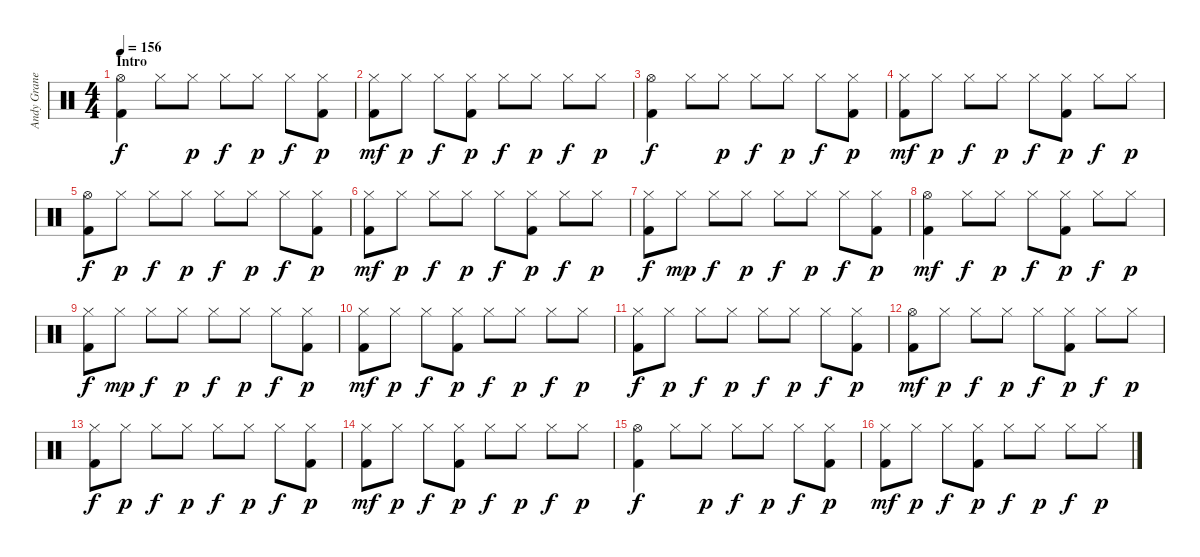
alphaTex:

\track ("Andy Granelli" "Andy Grane") {instrument percussion}
\staff {score}
\articulation defaults
\ts (4 4)
\section ("" "Intro")
\tempo 156
\clef neutral
\ks c
("Hi-Hat (open)" "Kick (hit) 2").4{dy f} "Hi-Hat (closed)".8 "Hi-Hat (closed)".8{dy p} "Hi-Hat (closed)".8{dy f} "Hi-Hat (closed)".8{dy p} "Hi-Hat (closed)".8{dy f} ("Hi-Hat (closed)" "Kick (hit) 2").8{dy p} |
("Hi-Hat (closed)" "Kick (hit) 2").8{dy mf} "Hi-Hat (closed)".8{dy p} "Hi-Hat (closed)".8{dy f} ("Hi-Hat (closed)" "Kick (hit) 2").8{dy p} "Hi-Hat (closed)".8{dy f} "Hi-Hat (closed)".8{dy p} "Hi-Hat (closed)".8{dy f} "Hi-Hat (closed)".8{dy p} |
("Hi-Hat (open)" "Kick (hit) 2").4{dy f} "Hi-Hat (closed)".8 "Hi-Hat (closed)".8{dy p} "Hi-Hat (closed)".8{dy f} "Hi-Hat (closed)".8{dy p} "Hi-Hat (closed)".8{dy f} ("Hi-Hat (closed)" "Kick (hit) 2").8{dy p} |
("Hi-Hat (closed)" "Kick (hit) 2").8{dy mf} "Hi-Hat (closed)".8{dy p} "Hi-Hat (closed)".8{dy f} "Hi-Hat (closed)".8{dy p} "Hi-Hat (closed)".8{dy f} ("Hi-Hat (closed)" "Kick (hit) 2").8{dy p} "Hi-Hat (closed)".8{dy f} "Hi-Hat (closed)".8{dy p} |
("Hi-Hat (open)" "Kick (hit) 2").8{dy f} "Hi-Hat (closed)".8{dy p} "Hi-Hat (closed)".8{dy f} "Hi-Hat (closed)".8{dy p} "Hi-Hat (closed)".8{dy f} "Hi-Hat (closed)".8{dy p} "Hi-Hat (closed)".8{dy f} ("Hi-Hat (closed)" "Kick (hit) 2").8{dy p} |
("Hi-Hat (closed)" "Kick (hit) 2").8{dy mf} "Hi-Hat (closed)".8{dy p} "Hi-Hat (closed)".8{dy f} "Hi-Hat (closed)".8{dy p} "Hi-Hat (closed)".8{dy f} ("Hi-Hat (closed)" "Kick (hit) 2").8{dy p} "Hi-Hat (closed)".8{dy f} "Hi-Hat (closed)".8{dy p} |
("Hi-Hat (closed)" "Kick (hit) 2").8{dy f} "Hi-Hat (closed)".8{dy mp} "Hi-Hat (closed)".8{dy f} "Hi-Hat (closed)".8{dy p} "Hi-Hat (closed)".8{dy f} "Hi-Hat (closed)".8{dy p} "Hi-Hat (closed)".8{dy f} ("Hi-Hat (closed)" "Kick (hit) 2").8{dy p} |
("Hi-Hat (open)" "Kick (hit) 2").4{dy mf} "Hi-Hat (closed)".8{dy f} "Hi-Hat (closed)".8{dy p} "Hi-Hat (closed)".8{dy f} ("Hi-Hat (closed)" "Kick (hit) 2").8{dy p} "Hi-Hat (closed)".8{dy f} "Hi-Hat (closed)".8{dy p} |
("Hi-Hat (closed)" "Kick (hit) 2").8{dy f} "Hi-Hat (closed)".8{dy mp} "Hi-Hat (closed)".8{dy f} "Hi-Hat (closed)".8{dy p} "Hi-Hat (closed)".8{dy f} "Hi-Hat (closed)".8{dy p} "Hi-Hat (closed)".8{dy f} ("Hi-Hat (closed)" "Kick (hit) 2").8{dy p} |
("Hi-Hat (closed)" "Kick (hit) 2").8{dy mf} "Hi-Hat (closed)".8{dy p} "Hi-Hat (closed)".8{dy f} ("Hi-Hat (closed)" "Kick (hit) 2").8{dy p} "Hi-Hat (closed)".8{dy f} "Hi-Hat (closed)".8{dy p} "Hi-Hat (closed)".8{dy f} "Hi-Hat (closed)".8{dy p} |
("Hi-Hat (closed)" "Kick (hit) 2").8{dy f} "Hi-Hat (closed)".8{dy p} "Hi-Hat (closed)".8{dy f} "Hi-Hat (closed)".8{dy p} "Hi-Hat (closed)".8{dy f} "Hi-Hat (closed)".8{dy p} "Hi-Hat (closed)".8{dy f} ("Hi-Hat (closed)" "Kick (hit) 2").8{dy p} |
("Hi-Hat (open)" "Kick (hit) 2").8{dy mf} "Hi-Hat (closed)".8{dy p} "Hi-Hat (closed)".8{dy f} "Hi-Hat (closed)".8{dy p} "Hi-Hat (closed)".8{dy f} ("Hi-Hat (closed)" "Kick (hit) 2").8{dy p} "Hi-Hat (closed)".8{dy f} "Hi-Hat (closed)".8{dy p} |
("Hi-Hat (closed)" "Kick (hit) 2").8{dy f} "Hi-Hat (closed)".8{dy p} "Hi-Hat (closed)".8{dy f} "Hi-Hat (closed)".8{dy p} "Hi-Hat (closed)".8{dy f} "Hi-Hat (closed)".8{dy p} "Hi-Hat (closed)".8{dy f} ("Hi-Hat (closed)" "Kick (hit) 2").8{dy p} |
("Hi-Hat (closed)" "Kick (hit) 2").8{dy mf} "Hi-Hat (closed)".8{dy p} "Hi-Hat (closed)".8{dy f} ("Hi-Hat (closed)" "Kick (hit) 2").8{dy p} "Hi-Hat (closed)".8{dy f} "Hi-Hat (closed)".8{dy p} "Hi-Hat (closed)".8{dy f} "Hi-Hat (closed)".8{dy p} |
("Hi-Hat (open)" "Kick (hit) 2").4{dy f} "Hi-Hat (closed)".8 "Hi-Hat (closed)".8{dy p} "Hi-Hat (closed)".8{dy f} "Hi-Hat (closed)".8{dy p} "Hi-Hat (closed)".8{dy f} ("Hi-Hat (closed)" "Kick (hit) 2").8{dy p} |
("Hi-Hat (closed)" "Kick (hit) 2").8{dy mf} "Hi-Hat (closed)".8{dy p} "Hi-Hat (closed)".8{dy f} ("Hi-Hat (closed)" "Kick (hit) 2").8{dy p} "Hi-Hat (closed)".8{dy f} "Hi-Hat (closed)".8{dy p} "Hi-Hat (closed)".8{dy f} "Hi-Hat (closed)".8{dy p}
